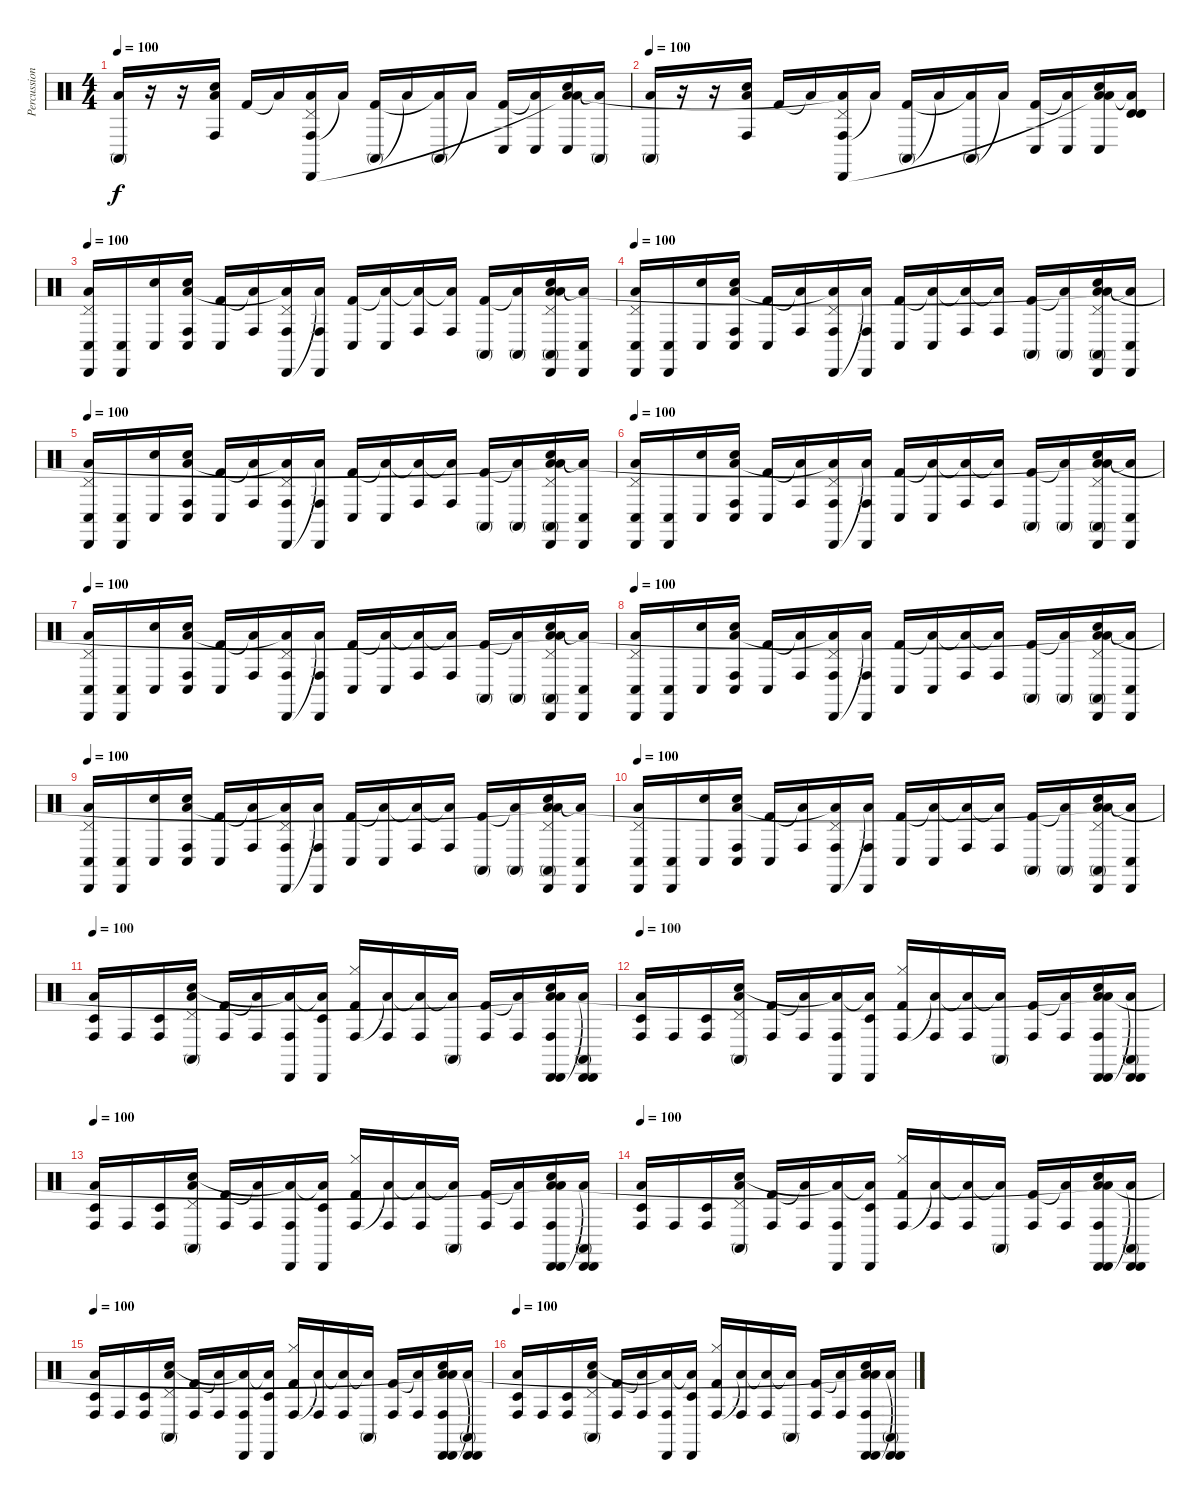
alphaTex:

\track ("Percussion" "Percussion") {instrument percussion}
\staff {score}
\articulation defaults
\ts (4 4)
\tempo 100
\clef neutral
\ks c
("Conga high (mute)" "Low Floor Tom (hit)").16{dy f} r.16 r.16 ("Conga high (hit)" "Hand Clap (hit)" "Low Tom (hit)").16 "Kick (hit) 2".16 "Low Tom (hit)"{t}.16 ("Conga high (hit)" "Pedal Hi-Hat (hit)" "Cabasa (hit)" "Low Tom (hit)"{t}).16 "Low Tom (hit)"{t}.16 ("Conga high (mute)" "Kick (hit) 2").16 "Low Tom (hit)"{t}.16 ("Conga high (mute)" "Low Tom (hit)"{t}).16 "Low Tom (hit)"{t}.16 ("Conga low (hit)" "Kick (hit) 2").16 ("Conga low (hit)" "Low Tom (hit)"{t}).16 ("Conga low (hit)" "Hand Clap (hit)" "Low Tom (hit)"{t} "Low Floor Tom (hit)").16 ("Conga high (mute)" "Low Tom (hit)"{t}).16 |
\tempo 100
("Conga high (mute)" "Low Floor Tom (hit)").16 r.16 r.16 ("Conga high (hit)" "Hand Clap (hit)" "Low Tom (hit)").16 "Kick (hit) 2".16 "Low Tom (hit)"{t}.16 ("Conga high (hit)" "Pedal Hi-Hat (hit)" "Cabasa (hit)" "Low Tom (hit)"{t}).16 "Low Tom (hit)"{t}.16 ("Conga high (mute)" "Kick (hit) 2").16 "Low Tom (hit)"{t}.16 ("Conga high (mute)" "Low Tom (hit)"{t}).16 "Low Tom (hit)"{t}.16 ("Conga low (hit)" "Kick (hit) 2").16 ("Conga low (hit)" "Low Tom (hit)"{t}).16 ("Conga low (hit)" "Hand Clap (hit)" "Low Tom (hit)"{t} "Low Floor Tom (hit)").16 ("Timbale high (hit)" "Timbale high (hit)" "Low Tom (hit)"{t}).16 |
\tempo 100
("Pedal Hi-Hat (hit)" "Conga low (hit)" "Cabasa (hit)" "Low Floor Tom (hit)").16 ("Conga low (hit)" "Cabasa (hit)").16 ("Conga low (hit)" "Hand Clap (hit)").16 ("Conga low (hit)" "Conga high (hit)" "Hand Clap (hit)" "Low Tom (hit)").16 ("Conga low (hit)" "Kick (hit) 2").16 ("Conga high (hit)" "Low Tom (hit)"{t}).16 ("Pedal Hi-Hat (hit)" "Conga high (hit)" "Cabasa (hit)" "Low Tom (hit)"{t}).16 ("Conga high (hit)" "Cabasa (hit)" "Low Tom (hit)"{t}).16 ("Conga low (hit)" "Kick (hit) 2").16 ("Conga low (hit)" "Low Tom (hit)"{t}).16 ("Conga high (hit)" "Low Tom (hit)"{t}).16 ("Conga high (hit)" "Low Tom (hit)"{t}).16 ("Conga high (mute)" "Kick (hit) 2").16 ("Conga high (mute)" "Low Tom (hit)"{t}).16 ("Pedal Hi-Hat (hit)" "Conga high (mute)" "Hand Clap (hit)" "Cabasa (hit)" "Low Tom (hit)" "Low Floor Tom (hit)").16 ("Conga low (hit)" "Cabasa (hit)" "Low Tom (hit)"{t}).16 |
\tempo 100
("Pedal Hi-Hat (hit)" "Conga low (hit)" "Cabasa (hit)" "Low Floor Tom (hit)").16 ("Conga low (hit)" "Cabasa (hit)").16 ("Conga low (hit)" "Hand Clap (hit)").16 ("Conga low (hit)" "Conga high (hit)" "Hand Clap (hit)" "Low Tom (hit)").16 ("Conga low (hit)" "Kick (hit) 2").16 ("Conga high (hit)" "Low Tom (hit)"{t}).16 ("Pedal Hi-Hat (hit)" "Conga high (hit)" "Cabasa (hit)" "Low Tom (hit)"{t}).16 ("Conga high (hit)" "Cabasa (hit)" "Low Tom (hit)"{t}).16 ("Conga low (hit)" "Kick (hit) 2").16 ("Conga low (hit)" "Low Tom (hit)"{t}).16 ("Conga high (hit)" "Low Tom (hit)"{t}).16 ("Conga high (hit)" "Low Tom (hit)"{t}).16 ("Conga high (mute)" "Kick (hit) 2").16 ("Conga high (mute)" "Low Tom (hit)"{t}).16 ("Pedal Hi-Hat (hit)" "Conga high (mute)" "Hand Clap (hit)" "Cabasa (hit)" "Low Tom (hit)"{t} "Low Floor Tom (hit)").16 ("Conga low (hit)" "Cabasa (hit)" "Low Tom (hit)"{t}).16 |
\tempo 100
("Pedal Hi-Hat (hit)" "Conga low (hit)" "Cabasa (hit)" "Low Floor Tom (hit)").16 ("Conga low (hit)" "Cabasa (hit)").16 ("Conga low (hit)" "Hand Clap (hit)").16 ("Conga low (hit)" "Conga high (hit)" "Hand Clap (hit)" "Low Tom (hit)").16 ("Conga low (hit)" "Kick (hit) 2").16 ("Conga high (hit)" "Low Tom (hit)"{t}).16 ("Pedal Hi-Hat (hit)" "Conga high (hit)" "Cabasa (hit)" "Low Tom (hit)"{t}).16 ("Conga high (hit)" "Cabasa (hit)" "Low Tom (hit)"{t}).16 ("Conga low (hit)" "Kick (hit) 2").16 ("Conga low (hit)" "Low Tom (hit)"{t}).16 ("Conga high (hit)" "Low Tom (hit)"{t}).16 ("Conga high (hit)" "Low Tom (hit)"{t}).16 ("Conga high (mute)" "Kick (hit) 2").16 ("Conga high (mute)" "Low Tom (hit)"{t}).16 ("Pedal Hi-Hat (hit)" "Conga high (mute)" "Hand Clap (hit)" "Cabasa (hit)" "Low Tom (hit)"{t} "Low Floor Tom (hit)").16 ("Conga low (hit)" "Cabasa (hit)" "Low Tom (hit)"{t}).16 |
\tempo 100
("Pedal Hi-Hat (hit)" "Conga low (hit)" "Cabasa (hit)" "Low Floor Tom (hit)").16 ("Conga low (hit)" "Cabasa (hit)").16 ("Conga low (hit)" "Hand Clap (hit)").16 ("Conga low (hit)" "Conga high (hit)" "Hand Clap (hit)" "Low Tom (hit)").16 ("Conga low (hit)" "Kick (hit) 2").16 ("Conga high (hit)" "Low Tom (hit)"{t}).16 ("Pedal Hi-Hat (hit)" "Conga high (hit)" "Cabasa (hit)" "Low Tom (hit)"{t}).16 ("Conga high (hit)" "Cabasa (hit)" "Low Tom (hit)"{t}).16 ("Conga low (hit)" "Kick (hit) 2").16 ("Conga low (hit)" "Low Tom (hit)"{t}).16 ("Conga high (hit)" "Low Tom (hit)"{t}).16 ("Conga high (hit)" "Low Tom (hit)"{t}).16 ("Conga high (mute)" "Kick (hit) 2").16 ("Conga high (mute)" "Low Tom (hit)"{t}).16 ("Pedal Hi-Hat (hit)" "Conga high (mute)" "Hand Clap (hit)" "Cabasa (hit)" "Low Tom (hit)"{t} "Low Floor Tom (hit)").16 ("Conga low (hit)" "Cabasa (hit)" "Low Tom (hit)"{t}).16 |
\tempo 100
("Pedal Hi-Hat (hit)" "Conga low (hit)" "Cabasa (hit)" "Low Floor Tom (hit)").16 ("Conga low (hit)" "Cabasa (hit)").16 ("Conga low (hit)" "Hand Clap (hit)").16 ("Conga low (hit)" "Conga high (hit)" "Hand Clap (hit)" "Low Tom (hit)").16 ("Conga low (hit)" "Kick (hit) 2").16 ("Conga high (hit)" "Low Tom (hit)"{t}).16 ("Pedal Hi-Hat (hit)" "Conga high (hit)" "Cabasa (hit)" "Low Tom (hit)"{t}).16 ("Conga high (hit)" "Cabasa (hit)" "Low Tom (hit)"{t}).16 ("Conga low (hit)" "Kick (hit) 2").16 ("Conga low (hit)" "Low Tom (hit)"{t}).16 ("Conga high (hit)" "Low Tom (hit)"{t}).16 ("Conga high (hit)" "Low Tom (hit)"{t}).16 ("Conga high (mute)" "Kick (hit) 2").16 ("Conga high (mute)" "Low Tom (hit)"{t}).16 ("Pedal Hi-Hat (hit)" "Conga high (mute)" "Hand Clap (hit)" "Cabasa (hit)" "Low Tom (hit)"{t} "Low Floor Tom (hit)").16 ("Conga low (hit)" "Cabasa (hit)" "Low Tom (hit)"{t}).16 |
\tempo 100
("Pedal Hi-Hat (hit)" "Conga low (hit)" "Cabasa (hit)" "Low Floor Tom (hit)").16 ("Conga low (hit)" "Cabasa (hit)").16 ("Conga low (hit)" "Hand Clap (hit)").16 ("Conga low (hit)" "Conga high (hit)" "Hand Clap (hit)" "Low Tom (hit)").16 ("Conga low (hit)" "Kick (hit) 2").16 ("Conga high (hit)" "Low Tom (hit)"{t}).16 ("Pedal Hi-Hat (hit)" "Conga high (hit)" "Cabasa (hit)" "Low Tom (hit)"{t}).16 ("Conga high (hit)" "Cabasa (hit)" "Low Tom (hit)"{t}).16 ("Conga low (hit)" "Kick (hit) 2").16 ("Conga low (hit)" "Low Tom (hit)"{t}).16 ("Conga high (hit)" "Low Tom (hit)"{t}).16 ("Conga high (hit)" "Low Tom (hit)"{t}).16 ("Conga high (mute)" "Kick (hit) 2").16 ("Conga high (mute)" "Low Tom (hit)"{t}).16 ("Pedal Hi-Hat (hit)" "Conga high (mute)" "Hand Clap (hit)" "Cabasa (hit)" "Low Tom (hit)"{t} "Low Floor Tom (hit)").16 ("Conga low (hit)" "Cabasa (hit)" "Low Tom (hit)"{t}).16 |
\tempo 100
("Pedal Hi-Hat (hit)" "Conga low (hit)" "Cabasa (hit)" "Low Floor Tom (hit)").16 ("Conga low (hit)" "Cabasa (hit)").16 ("Conga low (hit)" "Hand Clap (hit)").16 ("Conga low (hit)" "Conga high (hit)" "Hand Clap (hit)" "Low Tom (hit)").16 ("Conga low (hit)" "Kick (hit) 2").16 ("Conga high (hit)" "Low Tom (hit)"{t}).16 ("Pedal Hi-Hat (hit)" "Conga high (hit)" "Cabasa (hit)" "Low Tom (hit)"{t}).16 ("Conga high (hit)" "Cabasa (hit)" "Low Tom (hit)"{t}).16 ("Conga low (hit)" "Kick (hit) 2").16 ("Conga low (hit)" "Low Tom (hit)"{t}).16 ("Conga high (hit)" "Low Tom (hit)"{t}).16 ("Conga high (hit)" "Low Tom (hit)"{t}).16 ("Conga high (mute)" "Kick (hit) 2").16 ("Conga high (mute)" "Low Tom (hit)"{t}).16 ("Pedal Hi-Hat (hit)" "Conga high (mute)" "Hand Clap (hit)" "Cabasa (hit)" "Low Tom (hit)"{t} "Low Floor Tom (hit)").16 ("Conga low (hit)" "Cabasa (hit)" "Low Tom (hit)"{t}).16 |
\tempo 100
("Pedal Hi-Hat (hit)" "Conga low (hit)" "Cabasa (hit)" "Low Floor Tom (hit)").16 ("Conga low (hit)" "Cabasa (hit)").16 ("Conga low (hit)" "Hand Clap (hit)").16 ("Conga low (hit)" "Conga high (hit)" "Hand Clap (hit)" "Low Tom (hit)").16 ("Conga low (hit)" "Kick (hit) 2").16 ("Conga high (hit)" "Low Tom (hit)"{t}).16 ("Pedal Hi-Hat (hit)" "Conga high (hit)" "Cabasa (hit)" "Low Tom (hit)"{t}).16 ("Conga high (hit)" "Cabasa (hit)" "Low Tom (hit)"{t}).16 ("Conga low (hit)" "Kick (hit) 2").16 ("Conga low (hit)" "Low Tom (hit)"{t}).16 ("Conga high (hit)" "Low Tom (hit)"{t}).16 ("Conga high (hit)" "Low Tom (hit)"{t}).16 ("Conga high (mute)" "Kick (hit) 2").16 ("Conga high (mute)" "Low Tom (hit)"{t}).16 ("Pedal Hi-Hat (hit)" "Conga high (mute)" "Hand Clap (hit)" "Cabasa (hit)" "Low Tom (hit)"{t} "Low Floor Tom (hit)").16 ("Conga low (hit)" "Cabasa (hit)" "Low Tom (hit)"{t}).16 |
\tempo 100
("Timbale low (hit)" "Conga high (hit)" "Low Floor Tom (hit)").16 "Conga high (hit)".16 ("Timbale low (hit)" "Conga high (hit)").16 ("Pedal Hi-Hat (hit)" "Conga high (mute)" "Hand Clap (hit)" "Low Tom (hit)").16 ("Conga high (hit)" "Kick (hit) 2").16 ("Conga high (hit)" "Low Tom (hit)"{t}).16 ("Conga high (hit)" "Cabasa (hit)" "Low Tom (hit)"{t}).16 ("Timbale low (hit)" "Cabasa (hit)" "Low Tom (hit)"{t}).16 ("Hi-Hat (closed)" "Conga high (hit)" "Kick (hit) 2").16 ("Conga high (hit)" "Low Tom (hit)"{t}).16 ("Conga high (hit)" "Low Tom (hit)"{t}).16 ("Conga high (mute)" "Low Tom (hit)"{t}).16 ("Conga high (hit)" "Kick (hit) 2").16 ("Conga high (hit)" "Low Tom (hit)"{t}).16 ("Cabasa (hit)" "Conga high (hit)" "Hand Clap (hit)" "Cabasa (hit)" "Low Tom (hit)"{t} "Low Floor Tom (hit)").16 ("Cabasa (hit)" "Conga high (mute)" "Cabasa (hit)" "Low Tom (hit)"{t}).16 |
\tempo 100
("Timbale low (hit)" "Conga high (hit)" "Low Floor Tom (hit)").16 "Conga high (hit)".16 ("Timbale low (hit)" "Conga high (hit)").16 ("Pedal Hi-Hat (hit)" "Conga high (mute)" "Hand Clap (hit)" "Low Tom (hit)").16 ("Conga high (hit)" "Kick (hit) 2").16 ("Conga high (hit)" "Low Tom (hit)"{t}).16 ("Conga high (hit)" "Cabasa (hit)" "Low Tom (hit)"{t}).16 ("Timbale low (hit)" "Cabasa (hit)" "Low Tom (hit)"{t}).16 ("Hi-Hat (closed)" "Conga high (hit)" "Kick (hit) 2").16 ("Conga high (hit)" "Low Tom (hit)"{t}).16 ("Conga high (hit)" "Low Tom (hit)"{t}).16 ("Conga high (mute)" "Low Tom (hit)"{t}).16 ("Conga high (hit)" "Kick (hit) 2").16 ("Conga high (hit)" "Low Tom (hit)"{t}).16 ("Cabasa (hit)" "Conga high (hit)" "Hand Clap (hit)" "Cabasa (hit)" "Low Tom (hit)"{t} "Low Floor Tom (hit)").16 ("Cabasa (hit)" "Conga high (mute)" "Cabasa (hit)" "Low Tom (hit)"{t}).16 |
\tempo 100
("Timbale low (hit)" "Conga high (hit)" "Low Floor Tom (hit)").16 "Conga high (hit)".16 ("Timbale low (hit)" "Conga high (hit)").16 ("Pedal Hi-Hat (hit)" "Conga high (mute)" "Hand Clap (hit)" "Low Tom (hit)").16 ("Conga high (hit)" "Kick (hit) 2").16 ("Conga high (hit)" "Low Tom (hit)"{t}).16 ("Conga high (hit)" "Cabasa (hit)" "Low Tom (hit)"{t}).16 ("Timbale low (hit)" "Cabasa (hit)" "Low Tom (hit)"{t}).16 ("Hi-Hat (closed)" "Conga high (hit)" "Kick (hit) 2").16 ("Conga high (hit)" "Low Tom (hit)"{t}).16 ("Conga high (hit)" "Low Tom (hit)"{t}).16 ("Conga high (mute)" "Low Tom (hit)"{t}).16 ("Conga high (hit)" "Kick (hit) 2").16 ("Conga high (hit)" "Low Tom (hit)"{t}).16 ("Cabasa (hit)" "Conga high (hit)" "Hand Clap (hit)" "Cabasa (hit)" "Low Tom (hit)"{t} "Low Floor Tom (hit)").16 ("Cabasa (hit)" "Conga high (mute)" "Cabasa (hit)" "Low Tom (hit)"{t}).16 |
\tempo 100
("Timbale low (hit)" "Conga high (hit)" "Low Floor Tom (hit)").16 "Conga high (hit)".16 ("Timbale low (hit)" "Conga high (hit)").16 ("Pedal Hi-Hat (hit)" "Conga high (mute)" "Hand Clap (hit)" "Low Tom (hit)").16 ("Conga high (hit)" "Kick (hit) 2").16 ("Conga high (hit)" "Low Tom (hit)"{t}).16 ("Conga high (hit)" "Cabasa (hit)" "Low Tom (hit)"{t}).16 ("Timbale low (hit)" "Cabasa (hit)" "Low Tom (hit)"{t}).16 ("Hi-Hat (closed)" "Conga high (hit)" "Kick (hit) 2").16 ("Conga high (hit)" "Low Tom (hit)"{t}).16 ("Conga high (hit)" "Low Tom (hit)"{t}).16 ("Conga high (mute)" "Low Tom (hit)"{t}).16 ("Conga high (hit)" "Kick (hit) 2").16 ("Conga high (hit)" "Low Tom (hit)"{t}).16 ("Cabasa (hit)" "Conga high (hit)" "Hand Clap (hit)" "Cabasa (hit)" "Low Tom (hit)"{t} "Low Floor Tom (hit)").16 ("Cabasa (hit)" "Conga high (mute)" "Cabasa (hit)" "Low Tom (hit)"{t}).16 |
\tempo 100
("Timbale low (hit)" "Conga high (hit)" "Low Floor Tom (hit)").16 "Conga high (hit)".16 ("Timbale low (hit)" "Conga high (hit)").16 ("Pedal Hi-Hat (hit)" "Conga high (mute)" "Hand Clap (hit)" "Low Tom (hit)").16 ("Conga high (hit)" "Kick (hit) 2").16 ("Conga high (hit)" "Low Tom (hit)"{t}).16 ("Conga high (hit)" "Cabasa (hit)" "Low Tom (hit)"{t}).16 ("Timbale low (hit)" "Cabasa (hit)" "Low Tom (hit)"{t}).16 ("Hi-Hat (closed)" "Conga high (hit)" "Kick (hit) 2").16 ("Conga high (hit)" "Low Tom (hit)"{t}).16 ("Conga high (hit)" "Low Tom (hit)"{t}).16 ("Conga high (mute)" "Low Tom (hit)"{t}).16 ("Conga high (hit)" "Kick (hit) 2").16 ("Conga high (hit)" "Low Tom (hit)"{t}).16 ("Cabasa (hit)" "Conga high (hit)" "Hand Clap (hit)" "Cabasa (hit)" "Low Tom (hit)"{t} "Low Floor Tom (hit)").16 ("Cabasa (hit)" "Conga high (mute)" "Cabasa (hit)" "Low Tom (hit)"{t}).16 |
\tempo 100
("Timbale low (hit)" "Conga high (hit)" "Low Floor Tom (hit)").16 "Conga high (hit)".16 ("Timbale low (hit)" "Conga high (hit)").16 ("Pedal Hi-Hat (hit)" "Conga high (mute)" "Hand Clap (hit)" "Low Tom (hit)").16 ("Conga high (hit)" "Kick (hit) 2").16 ("Conga high (hit)" "Low Tom (hit)"{t}).16 ("Conga high (hit)" "Cabasa (hit)" "Low Tom (hit)"{t}).16 ("Timbale low (hit)" "Cabasa (hit)" "Low Tom (hit)"{t}).16 ("Hi-Hat (closed)" "Conga high (hit)" "Kick (hit) 2").16 ("Conga high (hit)" "Low Tom (hit)"{t}).16 ("Conga high (hit)" "Low Tom (hit)"{t}).16 ("Conga high (mute)" "Low Tom (hit)"{t}).16 ("Conga high (hit)" "Kick (hit) 2").16 ("Conga high (hit)" "Low Tom (hit)"{t}).16 ("Cabasa (hit)" "Conga high (hit)" "Hand Clap (hit)" "Cabasa (hit)" "Low Tom (hit)"{t} "Low Floor Tom (hit)").16 ("Cabasa (hit)" "Conga high (mute)" "Cabasa (hit)" "Low Tom (hit)"{t}).16
